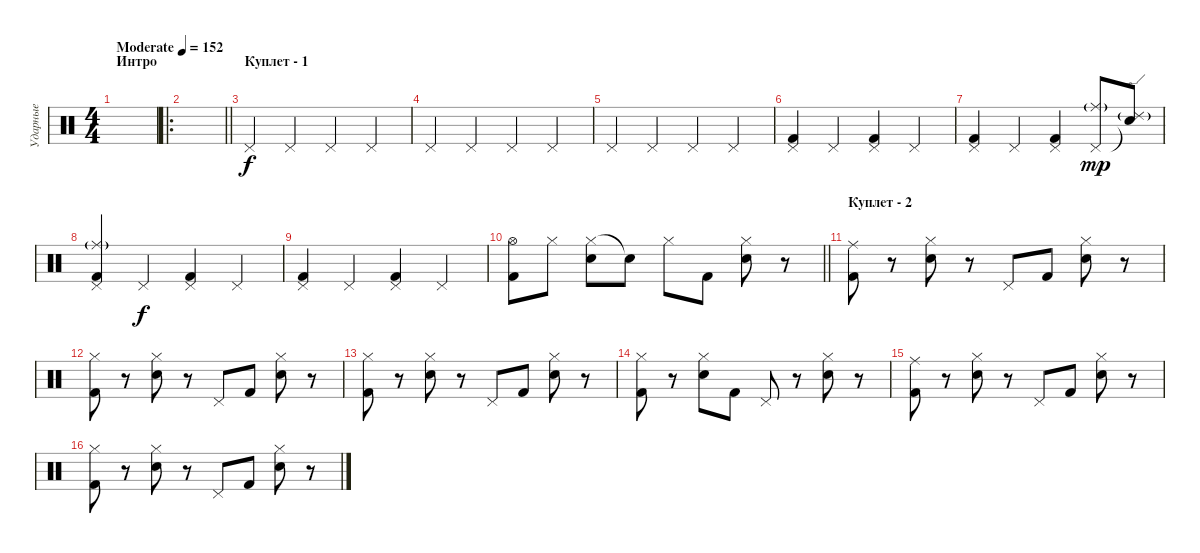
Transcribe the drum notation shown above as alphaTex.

\track ("Ударные" "Ударные") {instrument percussion}
\staff {score}
\articulation defaults
\ts (4 4)
\section ("" "Интро")
\tempo (152 "Moderate")
\clef neutral
\ks c
|
\ro
\barLineRight lightlight
|
\section ("" "Куплет - 1")
"Pedal Hi-Hat (hit)".4 "Pedal Hi-Hat (hit)".4 "Pedal Hi-Hat (hit)".4 "Pedal Hi-Hat (hit)".4 |
"Pedal Hi-Hat (hit)".4 "Pedal Hi-Hat (hit)".4 "Pedal Hi-Hat (hit)".4 "Pedal Hi-Hat (hit)".4 |
"Pedal Hi-Hat (hit)".4 "Pedal Hi-Hat (hit)".4 "Pedal Hi-Hat (hit)".4 "Pedal Hi-Hat (hit)".4 |
("Pedal Hi-Hat (hit)" "Kick (hit) 2").4 "Pedal Hi-Hat (hit)".4 ("Pedal Hi-Hat (hit)" "Kick (hit) 2").4 "Pedal Hi-Hat (hit)".4 |
("Pedal Hi-Hat (hit)" "Kick (hit) 2").4 "Pedal Hi-Hat (hit)".4 ("Pedal Hi-Hat (hit)" "Kick (hit) 2").4 ("Pedal Hi-Hat (hit)" "Ride (middle)"{g}).8{dy mp} ("Snare (hit)"{t} "Ride (edge) 2"{g}).8 |
("Pedal Hi-Hat (hit)" "Kick (hit) 2" "Ride (middle)"{g}).4 "Pedal Hi-Hat (hit)".4{dy f} ("Pedal Hi-Hat (hit)" "Kick (hit) 2").4 "Pedal Hi-Hat (hit)".4 |
("Pedal Hi-Hat (hit)" "Kick (hit) 2").4 "Pedal Hi-Hat (hit)".4 ("Pedal Hi-Hat (hit)" "Kick (hit) 2").4 "Pedal Hi-Hat (hit)".4 |
\barLineRight lightlight
("Hi-Hat (open)" "Kick (hit) 2").8 "Hi-Hat (closed)".8 ("Hi-Hat (closed)" "Snare (hit) 2").8 "Snare (hit)"{t}.8 "Hi-Hat (closed)".8 "Kick (hit) 2".8 ("Hi-Hat (closed)" "Snare (hit) 2").8 r.8 |
\section ("" "Куплет - 2")
("Ride (middle)" "Kick (hit) 2").8 r.8 ("Hi-Hat (closed)" "Snare (hit) 2").8 r.8 "Pedal Hi-Hat (hit)".8 "Kick (hit) 2".8 ("Hi-Hat (closed)" "Snare (hit) 2").8 r.8 |
("Hi-Hat (closed)" "Kick (hit) 2").8 r.8 ("Hi-Hat (closed)" "Snare (hit) 2").8 r.8 "Pedal Hi-Hat (hit)".8 "Kick (hit) 2".8 ("Hi-Hat (closed)" "Snare (hit) 2").8 r.8 |
("Hi-Hat (closed)" "Kick (hit) 2").8 r.8 ("Hi-Hat (closed)" "Snare (hit) 2").8 r.8 "Pedal Hi-Hat (hit)".8 "Kick (hit) 2".8 ("Hi-Hat (closed)" "Snare (hit) 2").8 r.8 |
("Hi-Hat (closed)" "Kick (hit) 2").8 r.8 ("Hi-Hat (closed)" "Snare (hit) 2").8 "Kick (hit) 2".8 "Pedal Hi-Hat (hit)".8 r.8 ("Hi-Hat (closed)" "Snare (hit) 2").8 r.8 |
("Ride (middle)" "Kick (hit) 2").8 r.8 ("Hi-Hat (closed)" "Snare (hit) 2").8 r.8 "Pedal Hi-Hat (hit)".8 "Kick (hit) 2".8 ("Hi-Hat (closed)" "Snare (hit) 2").8 r.8 |
("Hi-Hat (closed)" "Kick (hit) 2").8 r.8 ("Hi-Hat (closed)" "Snare (hit) 2").8 r.8 "Pedal Hi-Hat (hit)".8 "Kick (hit) 2".8 ("Hi-Hat (closed)" "Snare (hit) 2").8 r.8
